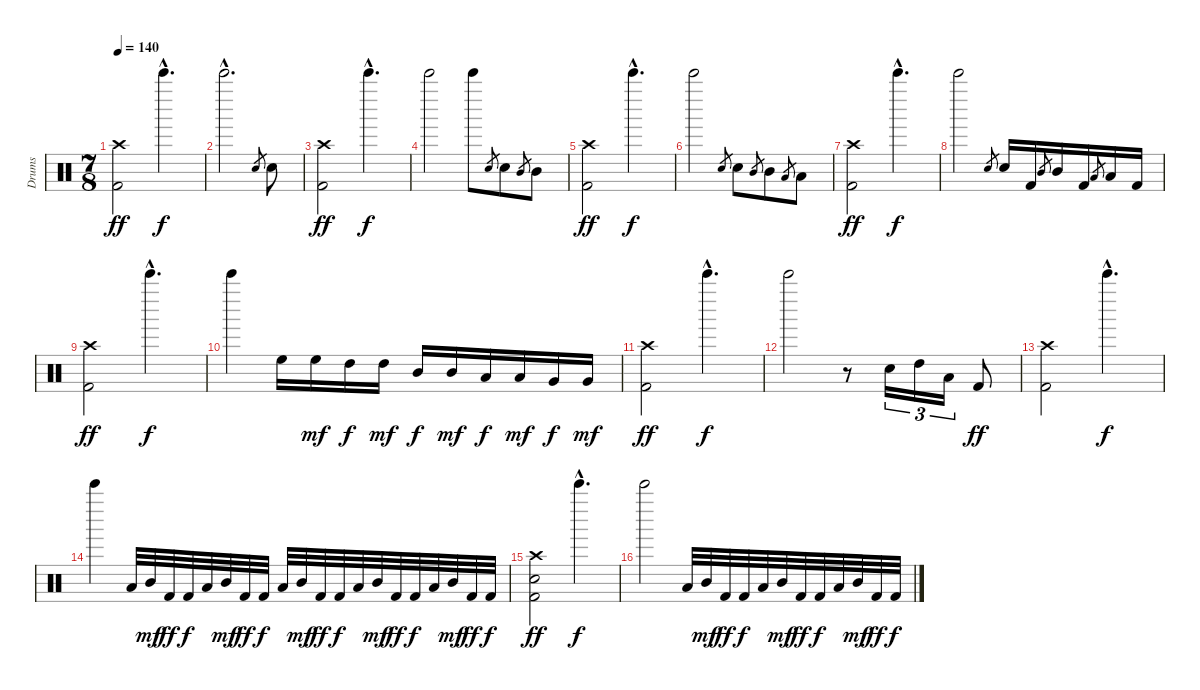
\track ("Drums" "Drums") {instrument percussion}
\staff {score}
\articulation defaults
\ts (7 8)
\tempo 140
\clef neutral
\ks c
("Crash high (hit)" "Kick (hit) 2").2{dy ff} "Bell Tree (hit)"{hac}.4{d dy f} |
"Bell Tree (hit)"{hac}.2{d} "Snare (hit) 2".8{gr} "Snare (hit) 2".8 |
("Crash high (hit)" "Kick (hit) 2").2{dy ff} "Bell Tree (hit)"{hac}.4{d dy f} |
"Bell Tree (hit)".2 "Bell Tree (hit)".8 "Snare (hit) 2".8{gr} "Snare (hit) 2".8 "Mid Tom (hit)".8{gr} "Mid Tom (hit)".8 |
("Crash high (hit)" "Kick (hit) 2").2{dy ff} "Bell Tree (hit)"{hac}.4{d dy f} |
"Bell Tree (hit)".2 "Snare (hit) 2".8{gr} "Snare (hit) 2".8 "Mid Tom (hit)".8{gr} "Mid Tom (hit)".8 "Low Tom (hit)".8{gr} "Low Tom (hit)".8 |
("Crash high (hit)" "Kick (hit) 2").2{dy ff} "Bell Tree (hit)"{hac}.4{d dy f} |
"Bell Tree (hit)".2 "Snare (hit) 2".8{gr} "Snare (hit) 2".16 "Kick (hit) 2".16 "Mid Tom (hit)".8{gr} "Mid Tom (hit)".16 "Kick (hit) 2".16 "Low Tom (hit)".8{gr} "Low Tom (hit)".16 "Kick (hit) 2".16 |
("Crash high (hit)" "Kick (hit) 2").2{dy ff} "Bell Tree (hit)"{hac}.4{d dy f} |
"Bell Tree (hit)".4 "High Floor Tom (hit)".16 "High Floor Tom (hit)".16{dy mf} "High Tom (hit)".16{dy f} "High Tom (hit)".16{dy mf} "Mid Tom (hit)".16{dy f} "Mid Tom (hit)".16{dy mf} "Low Tom (hit)".16{dy f} "Low Tom (hit)".16{dy mf} "Very Low Tom (hit)".16{dy f} "Very Low Tom (hit)".16{dy mf} |
("Crash high (hit)" "Kick (hit) 2").2{dy ff} "Bell Tree (hit)"{hac}.4{d dy f} |
"Bell Tree (hit)".2 r.8 "Snare (hit) 2".16{tu (3 2)} "High Tom (hit)".16{tu (3 2)} "Low Floor Tom (hit)".16{tu (3 2)} "Kick (hit) 2".8{dy ff} |
("Crash high (hit)" "Kick (hit) 2").2 "Bell Tree (hit)"{hac}.4{d dy f} |
"Bell Tree (hit)".4 "Low Tom (hit)".32 "Mid Tom (hit)".32{dy mf} "Kick (hit) 2".32{dy ff} "Kick (hit) 2".32{dy f} "Low Tom (hit)".32 "Mid Tom (hit)".32{dy mf} "Kick (hit) 2".32{dy ff} "Kick (hit) 2".32{dy f} "Low Tom (hit)".32 "Mid Tom (hit)".32{dy mf} "Kick (hit) 2".32{dy ff} "Kick (hit) 2".32{dy f} "Low Tom (hit)".32 "Mid Tom (hit)".32{dy mf} "Kick (hit) 2".32{dy ff} "Kick (hit) 2".32{dy f} "Low Tom (hit)".32 "Mid Tom (hit)".32{dy mf} "Kick (hit) 2".32{dy ff} "Kick (hit) 2".32{dy f} |
("Crash high (hit)" "Snare (hit) 2" "Kick (hit) 2").2{dy ff} "Bell Tree (hit)"{hac}.4{d dy f} |
"Bell Tree (hit)".2 "Low Tom (hit)".32 "Mid Tom (hit)".32{dy mf} "Kick (hit) 2".32{dy ff} "Kick (hit) 2".32{dy f} "Low Tom (hit)".32 "Mid Tom (hit)".32{dy mf} "Kick (hit) 2".32{dy ff} "Kick (hit) 2".32{dy f} "Low Tom (hit)".32 "Mid Tom (hit)".32{dy mf} "Kick (hit) 2".32{dy ff} "Kick (hit) 2".32{dy f}
